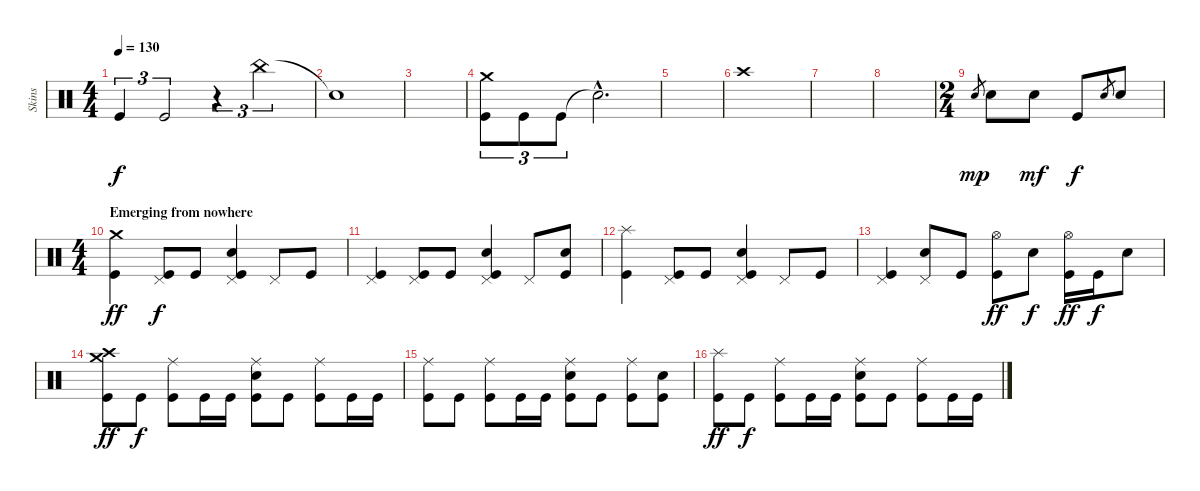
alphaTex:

\track ("Skins" "Skins") {instrument percussion}
\staff {score}
\articulation defaults
\ts (4 4)
\tempo 130
\clef neutral
\ks c "Kick (hit)".4{tu (3 2) dy f} "Kick (hit)".2{tu (3 2)}
r.4{tu (3 2)} "China (hit)".2{tu (3 2)} |
"Snare (hit)"{t}.1 |
|
("Crash medium (hit)" "Kick (hit)").8{tu (3 2)} "Kick (hit)".8{tu (3 2)} "Kick (hit)".8{tu (3 2)} "Snare (hit)"{hac t}.2{d} |
|
"Crash high (hit)".1 |
|
|
\ts (2 4)
"Electric Snare (hit)".8{gr dy mp} "Electric Snare (hit)".8{balance 8} "Electric Snare (hit)".8{dy mf} "Kick (hit)".8{dy f} "Electric Snare (hit)".8{gr} "Electric Snare (hit)".8 |
\ts (4 4)
\section ("" "Emerging from nowhere")
("Crash medium (hit)" "Kick (hit)").4{dy ff volume 12} ("Pedal Hi-Hat (hit)" "Kick (hit)").8{dy f} "Kick (hit)".8 ("Pedal Hi-Hat (hit)" "Electric Snare (hit)" "Kick (hit)").4 "Pedal Hi-Hat (hit)".8 "Kick (hit)".8 |
("Pedal Hi-Hat (hit)" "Kick (hit)").4 ("Pedal Hi-Hat (hit)" "Kick (hit)").8 "Kick (hit)".8 ("Pedal Hi-Hat (hit)" "Electric Snare (hit)" "Kick (hit)").4 "Pedal Hi-Hat (hit)".8 ("Electric Snare (hit)" "Kick (hit)").8 |
("Splash (hit)" "Kick (hit)").4 ("Pedal Hi-Hat (hit)" "Kick (hit)").8 "Kick (hit)".8 ("Pedal Hi-Hat (hit)" "Electric Snare (hit)" "Kick (hit)").4 "Pedal Hi-Hat (hit)".8 "Kick (hit)".8 |
("Pedal Hi-Hat (hit)" "Kick (hit)").4 ("Pedal Hi-Hat (hit)" "Electric Snare (hit)").8 "Kick (hit)".8 ("Hi-Hat (open)" "Kick (hit)").8{dy ff} "Electric Snare (hit)".8{dy f} ("Hi-Hat (open)" "Kick (hit)").16{dy ff} "Kick (hit)".16{dy f} "Electric Snare (hit)".8 |
("Crash high (hit)" "Crash medium (hit)" "Kick (hit)").8{dy ff} "Kick (hit)".8{dy f} ("Ride (middle)" "Kick (hit)").8 "Kick (hit)".16 "Kick (hit)".16 ("Ride (middle)" "Electric Snare (hit)" "Kick (hit)").8 "Kick (hit)".8 ("Ride (middle)" "Kick (hit)").8 "Kick (hit)".16 "Kick (hit)".16 |
("Ride (middle)" "Kick (hit)").8 "Kick (hit)".8 ("Ride (middle)" "Kick (hit)").8 "Kick (hit)".16 "Kick (hit)".16 ("Ride (middle)" "Electric Snare (hit)" "Kick (hit)").8 "Kick (hit)".8 ("Ride (middle)" "Kick (hit)").8 ("Electric Snare (hit)" "Kick (hit)").8 |
("Splash (hit)" "Kick (hit)").8{dy ff} "Kick (hit)".8{dy f} ("Ride (middle)" "Kick (hit)").8 "Kick (hit)".16 "Kick (hit)".16 ("Ride (middle)" "Electric Snare (hit)" "Kick (hit)").8 "Kick (hit)".8 ("Ride (middle)" "Kick (hit)").8 "Kick (hit)".16 "Kick (hit)".16
